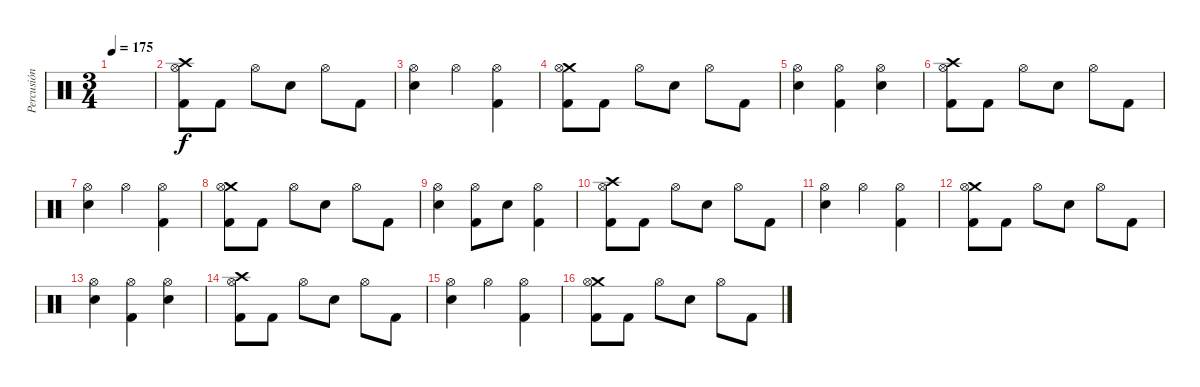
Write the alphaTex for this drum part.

\track ("Percusión" "Percusión") {instrument percussion}
\staff {score}
\articulation defaults
\ts (3 4)
\tempo 175
\clef neutral
\ks c
|
("Crash high (hit)" "Hi-Hat (open)" "Kick (hit) 2").8 "Kick (hit) 2".8 "Hi-Hat (open)".8 "Snare (hit) 2".8 "Hi-Hat (open)".8 "Kick (hit) 2".8 |
("Hi-Hat (open)" "Snare (hit) 2").4 "Hi-Hat (open)".4 ("Hi-Hat (open)" "Kick (hit) 2").4 |
("Crash medium (hit)" "Hi-Hat (open)" "Kick (hit) 2").8 "Kick (hit) 2".8 "Hi-Hat (open)".8 "Snare (hit) 2".8 "Hi-Hat (open)".8 "Kick (hit) 2".8 |
("Hi-Hat (open)" "Snare (hit) 2").4 ("Hi-Hat (open)" "Kick (hit) 2").4 ("Hi-Hat (open)" "Snare (hit) 2").4 |
("Crash high (hit)" "Hi-Hat (open)" "Kick (hit) 2").8 "Kick (hit) 2".8 "Hi-Hat (open)".8 "Snare (hit) 2".8 "Hi-Hat (open)".8 "Kick (hit) 2".8 |
("Hi-Hat (open)" "Snare (hit) 2").4 "Hi-Hat (open)".4 ("Hi-Hat (open)" "Kick (hit) 2").4 |
("Crash medium (hit)" "Hi-Hat (open)" "Kick (hit) 2").8 "Kick (hit) 2".8 "Hi-Hat (open)".8 "Snare (hit) 2".8 "Hi-Hat (open)".8 "Kick (hit) 2".8 |
("Hi-Hat (open)" "Snare (hit) 2").4 ("Hi-Hat (open)" "Kick (hit) 2").8 "Snare (hit) 2".8 ("Hi-Hat (open)" "Kick (hit) 2").4 |
("Crash high (hit)" "Hi-Hat (open)" "Kick (hit) 2").8 "Kick (hit) 2".8 "Hi-Hat (open)".8 "Snare (hit) 2".8 "Hi-Hat (open)".8 "Kick (hit) 2".8 |
("Hi-Hat (open)" "Snare (hit) 2").4 "Hi-Hat (open)".4 ("Hi-Hat (open)" "Kick (hit) 2").4 |
("Crash medium (hit)" "Hi-Hat (open)" "Kick (hit) 2").8 "Kick (hit) 2".8 "Hi-Hat (open)".8 "Snare (hit) 2".8 "Hi-Hat (open)".8 "Kick (hit) 2".8 |
("Hi-Hat (open)" "Snare (hit) 2").4 ("Hi-Hat (open)" "Kick (hit) 2").4 ("Hi-Hat (open)" "Snare (hit) 2").4 |
("Crash high (hit)" "Hi-Hat (open)" "Kick (hit) 2").8 "Kick (hit) 2".8 "Hi-Hat (open)".8 "Snare (hit) 2".8 "Hi-Hat (open)".8 "Kick (hit) 2".8 |
("Hi-Hat (open)" "Snare (hit) 2").4 "Hi-Hat (open)".4 ("Hi-Hat (open)" "Kick (hit) 2").4 |
("Crash medium (hit)" "Hi-Hat (open)" "Kick (hit) 2").8 "Kick (hit) 2".8 "Hi-Hat (open)".8 "Snare (hit) 2".8 "Hi-Hat (open)".8 "Kick (hit) 2".8
